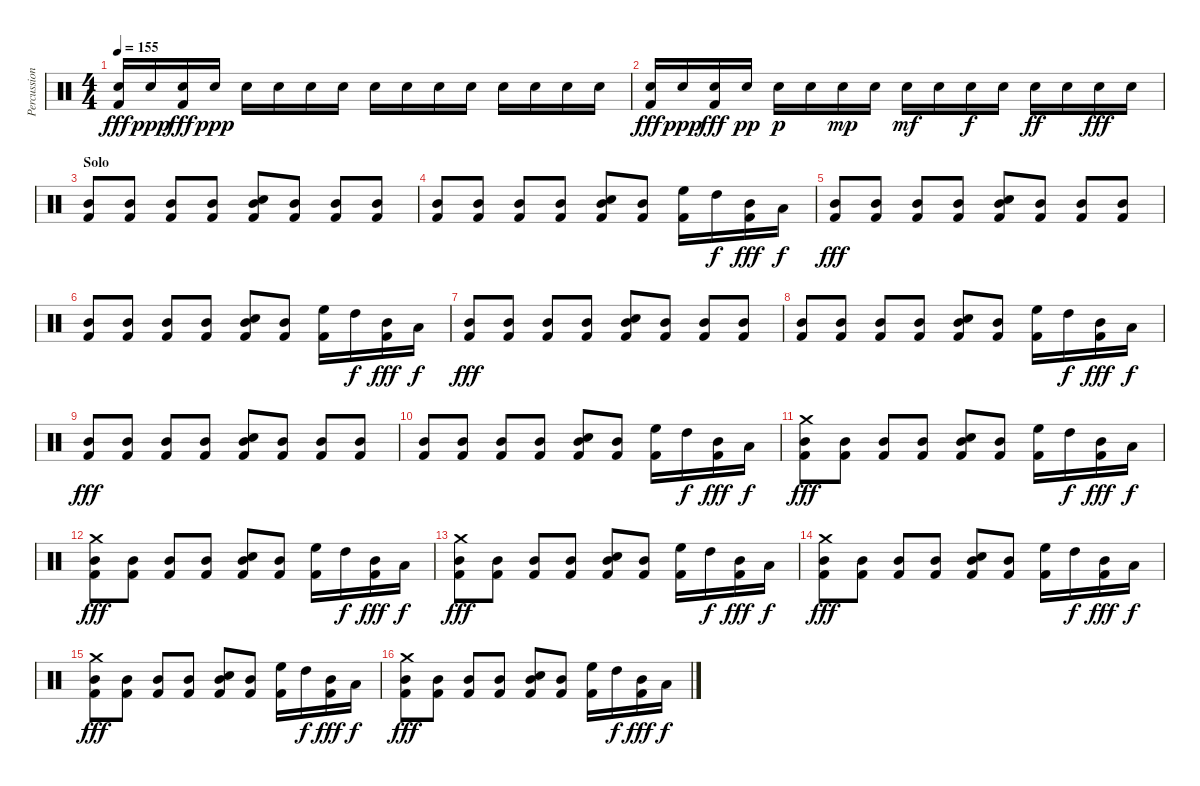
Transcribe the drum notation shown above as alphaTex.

\track ("Percussion" "Percussion") {instrument percussion}
\staff {score}
\articulation defaults
\ts (4 4)
\tempo 155
\clef neutral
\ks c
("Snare (hit) 2" "Kick (hit) 2").16{dy fff} "Snare (hit) 2".16{dy ppp} ("Snare (hit) 2" "Kick (hit) 2").16{dy fff} "Snare (hit) 2".16{dy ppp} "Snare (hit) 2".16 "Snare (hit) 2".16 "Snare (hit) 2".16 "Snare (hit) 2".16 "Snare (hit) 2".16 "Snare (hit) 2".16 "Snare (hit) 2".16 "Snare (hit) 2".16 "Snare (hit) 2".16 "Snare (hit) 2".16 "Snare (hit) 2".16 "Snare (hit) 2".16 |
("Snare (hit) 2" "Kick (hit) 2").16{dy fff} "Snare (hit) 2".16{dy ppp} ("Snare (hit) 2" "Kick (hit) 2").16{dy fff} "Snare (hit) 2".16{dy pp} "Snare (hit) 2".16{dy p} "Snare (hit) 2".16 "Snare (hit) 2".16{dy mp} "Snare (hit) 2".16 "Snare (hit) 2".16{dy mf} "Snare (hit) 2".16 "Snare (hit) 2".16{dy f} "Snare (hit) 2".16 "Snare (hit) 2".16{dy ff} "Snare (hit) 2".16 "Snare (hit) 2".16{dy fff} "Snare (hit) 2".16 |
\section ("" "Solo")
("Mid Tom (hit)" "Kick (hit) 2").8 ("Mid Tom (hit)" "Kick (hit) 2").8 ("Mid Tom (hit)" "Kick (hit) 2").8 ("Mid Tom (hit)" "Kick (hit) 2").8 ("Mid Tom (hit)" "Snare (hit) 2" "Kick (hit) 2").8 ("Mid Tom (hit)" "Kick (hit) 2").8 ("Mid Tom (hit)" "Kick (hit) 2").8 ("Mid Tom (hit)" "Kick (hit) 2").8 |
("Mid Tom (hit)" "Kick (hit) 2").8 ("Mid Tom (hit)" "Kick (hit) 2").8 ("Mid Tom (hit)" "Kick (hit) 2").8 ("Mid Tom (hit)" "Kick (hit) 2").8 ("Mid Tom (hit)" "Snare (hit) 2" "Kick (hit) 2").8 ("Mid Tom (hit)" "Kick (hit) 2").8 ("High Floor Tom (hit)" "Kick (hit) 2").16 "High Tom (hit)".16{dy f} ("Mid Tom (hit)" "Kick (hit) 2").16{dy fff} "Low Tom (hit)".16{dy f} |
("Mid Tom (hit)" "Kick (hit) 2").8{dy fff} ("Mid Tom (hit)" "Kick (hit) 2").8 ("Mid Tom (hit)" "Kick (hit) 2").8 ("Mid Tom (hit)" "Kick (hit) 2").8 ("Mid Tom (hit)" "Snare (hit) 2" "Kick (hit) 2").8 ("Mid Tom (hit)" "Kick (hit) 2").8 ("Mid Tom (hit)" "Kick (hit) 2").8 ("Mid Tom (hit)" "Kick (hit) 2").8 |
("Mid Tom (hit)" "Kick (hit) 2").8 ("Mid Tom (hit)" "Kick (hit) 2").8 ("Mid Tom (hit)" "Kick (hit) 2").8 ("Mid Tom (hit)" "Kick (hit) 2").8 ("Mid Tom (hit)" "Snare (hit) 2" "Kick (hit) 2").8 ("Mid Tom (hit)" "Kick (hit) 2").8 ("High Floor Tom (hit)" "Kick (hit) 2").16 "High Tom (hit)".16{dy f} ("Mid Tom (hit)" "Kick (hit) 2").16{dy fff} "Low Tom (hit)".16{dy f} |
("Mid Tom (hit)" "Kick (hit) 2").8{dy fff} ("Mid Tom (hit)" "Kick (hit) 2").8 ("Mid Tom (hit)" "Kick (hit) 2").8 ("Mid Tom (hit)" "Kick (hit) 2").8 ("Mid Tom (hit)" "Snare (hit) 2" "Kick (hit) 2").8 ("Mid Tom (hit)" "Kick (hit) 2").8 ("Mid Tom (hit)" "Kick (hit) 2").8 ("Mid Tom (hit)" "Kick (hit) 2").8 |
("Mid Tom (hit)" "Kick (hit) 2").8 ("Mid Tom (hit)" "Kick (hit) 2").8 ("Mid Tom (hit)" "Kick (hit) 2").8 ("Mid Tom (hit)" "Kick (hit) 2").8 ("Mid Tom (hit)" "Snare (hit) 2" "Kick (hit) 2").8 ("Mid Tom (hit)" "Kick (hit) 2").8 ("High Floor Tom (hit)" "Kick (hit) 2").16 "High Tom (hit)".16{dy f} ("Mid Tom (hit)" "Kick (hit) 2").16{dy fff} "Low Tom (hit)".16{dy f} |
("Mid Tom (hit)" "Kick (hit) 2").8{dy fff} ("Mid Tom (hit)" "Kick (hit) 2").8 ("Mid Tom (hit)" "Kick (hit) 2").8 ("Mid Tom (hit)" "Kick (hit) 2").8 ("Mid Tom (hit)" "Snare (hit) 2" "Kick (hit) 2").8 ("Mid Tom (hit)" "Kick (hit) 2").8 ("Mid Tom (hit)" "Kick (hit) 2").8 ("Mid Tom (hit)" "Kick (hit) 2").8 |
("Mid Tom (hit)" "Kick (hit) 2").8 ("Mid Tom (hit)" "Kick (hit) 2").8 ("Mid Tom (hit)" "Kick (hit) 2").8 ("Mid Tom (hit)" "Kick (hit) 2").8 ("Mid Tom (hit)" "Snare (hit) 2" "Kick (hit) 2").8 ("Mid Tom (hit)" "Kick (hit) 2").8 ("High Floor Tom (hit)" "Kick (hit) 2").16 "High Tom (hit)".16{dy f} ("Mid Tom (hit)" "Kick (hit) 2").16{dy fff} "Low Tom (hit)".16{dy f} |
("Crash medium (hit)" "Mid Tom (hit)" "Kick (hit) 2").8{dy fff} ("Mid Tom (hit)" "Kick (hit) 2").8 ("Mid Tom (hit)" "Kick (hit) 2").8 ("Mid Tom (hit)" "Kick (hit) 2").8 ("Mid Tom (hit)" "Snare (hit) 2" "Kick (hit) 2").8 ("Mid Tom (hit)" "Kick (hit) 2").8 ("High Floor Tom (hit)" "Kick (hit) 2").16 "High Tom (hit)".16{dy f} ("Mid Tom (hit)" "Kick (hit) 2").16{dy fff} "Low Tom (hit)".16{dy f} |
("Crash medium (hit)" "Mid Tom (hit)" "Kick (hit) 2").8{dy fff} ("Mid Tom (hit)" "Kick (hit) 2").8 ("Mid Tom (hit)" "Kick (hit) 2").8 ("Mid Tom (hit)" "Kick (hit) 2").8 ("Mid Tom (hit)" "Snare (hit) 2" "Kick (hit) 2").8 ("Mid Tom (hit)" "Kick (hit) 2").8 ("High Floor Tom (hit)" "Kick (hit) 2").16 "High Tom (hit)".16{dy f} ("Mid Tom (hit)" "Kick (hit) 2").16{dy fff} "Low Tom (hit)".16{dy f} |
("Crash medium (hit)" "Mid Tom (hit)" "Kick (hit) 2").8{dy fff} ("Mid Tom (hit)" "Kick (hit) 2").8 ("Mid Tom (hit)" "Kick (hit) 2").8 ("Mid Tom (hit)" "Kick (hit) 2").8 ("Mid Tom (hit)" "Snare (hit) 2" "Kick (hit) 2").8 ("Mid Tom (hit)" "Kick (hit) 2").8 ("High Floor Tom (hit)" "Kick (hit) 2").16 "High Tom (hit)".16{dy f} ("Mid Tom (hit)" "Kick (hit) 2").16{dy fff} "Low Tom (hit)".16{dy f} |
("Crash medium (hit)" "Mid Tom (hit)" "Kick (hit) 2").8{dy fff} ("Mid Tom (hit)" "Kick (hit) 2").8 ("Mid Tom (hit)" "Kick (hit) 2").8 ("Mid Tom (hit)" "Kick (hit) 2").8 ("Mid Tom (hit)" "Snare (hit) 2" "Kick (hit) 2").8 ("Mid Tom (hit)" "Kick (hit) 2").8 ("High Floor Tom (hit)" "Kick (hit) 2").16 "High Tom (hit)".16{dy f} ("Mid Tom (hit)" "Kick (hit) 2").16{dy fff} "Low Tom (hit)".16{dy f} |
("Crash medium (hit)" "Mid Tom (hit)" "Kick (hit) 2").8{dy fff} ("Mid Tom (hit)" "Kick (hit) 2").8 ("Mid Tom (hit)" "Kick (hit) 2").8 ("Mid Tom (hit)" "Kick (hit) 2").8 ("Mid Tom (hit)" "Snare (hit) 2" "Kick (hit) 2").8 ("Mid Tom (hit)" "Kick (hit) 2").8 ("High Floor Tom (hit)" "Kick (hit) 2").16 "High Tom (hit)".16{dy f} ("Mid Tom (hit)" "Kick (hit) 2").16{dy fff} "Low Tom (hit)".16{dy f} |
("Crash medium (hit)" "Mid Tom (hit)" "Kick (hit) 2").8{dy fff} ("Mid Tom (hit)" "Kick (hit) 2").8 ("Mid Tom (hit)" "Kick (hit) 2").8 ("Mid Tom (hit)" "Kick (hit) 2").8 ("Mid Tom (hit)" "Snare (hit) 2" "Kick (hit) 2").8 ("Mid Tom (hit)" "Kick (hit) 2").8 ("High Floor Tom (hit)" "Kick (hit) 2").16 "High Tom (hit)".16{dy f} ("Mid Tom (hit)" "Kick (hit) 2").16{dy fff} "Low Tom (hit)".16{dy f}
